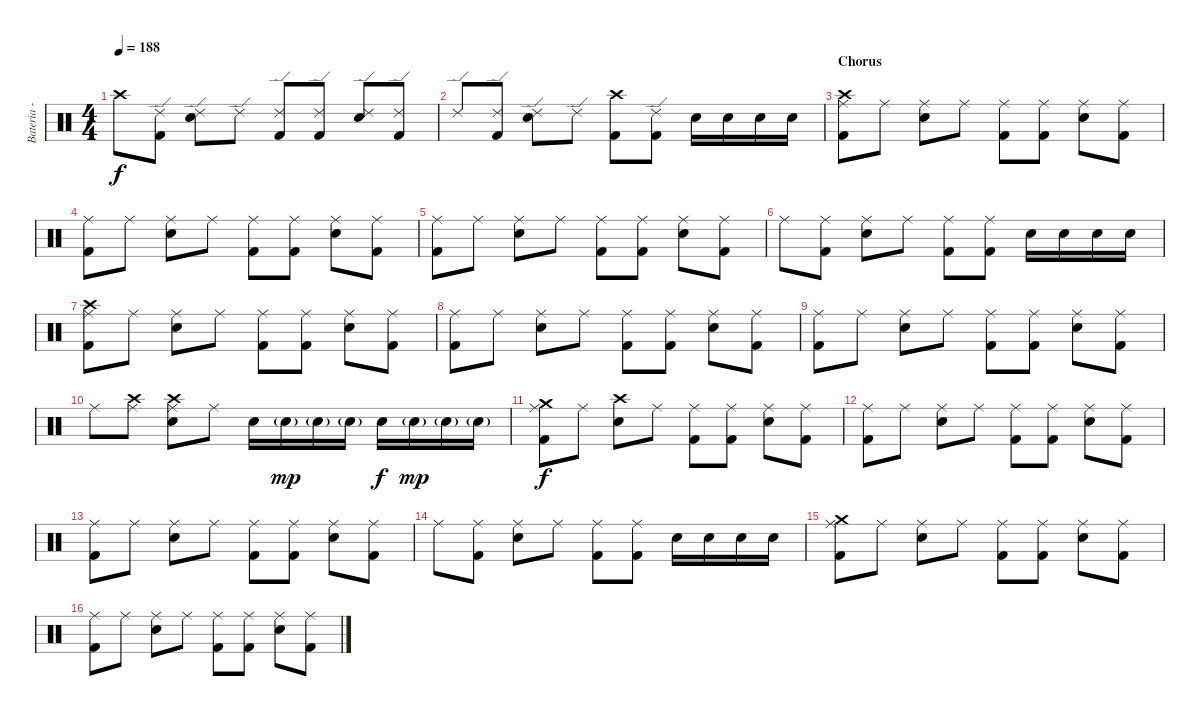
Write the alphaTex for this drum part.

\track ("Bateria - Larzon" "Bateria - ") {instrument percussion}
\staff {score}
\articulation defaults
\ts (4 4)
\tempo 188
\clef neutral
\ks c "Crash high (hit)".8{dy f}
("Kick (hit) 2" "Ride (edge) 2").8 ("Snare (hit) 2" "Ride (edge) 2").8 "Ride (edge) 2".8 ("Kick (hit) 2" "Ride (edge) 2").8 ("Kick (hit) 2" "Ride (edge) 2").8 ("Snare (hit) 2" "Ride (edge) 2").8 ("Kick (hit) 2" "Ride (edge) 2").8 |
"Ride (edge) 2".8 ("Kick (hit) 2" "Ride (edge) 2").8 ("Snare (hit) 2" "Ride (edge) 2").8 "Ride (edge) 2".8 ("Kick (hit) 2" "Crash high (hit)").8 ("Kick (hit) 2" "Ride (edge) 2").8 "Snare (hit) 2".16 "Snare (hit) 2".16 "Snare (hit) 2".16 "Snare (hit) 2".16 |
\section ("" "Chorus")
("Kick (hit) 2" "Crash high (hit)" "Ride (middle)").8 "Ride (middle)".8 ("Snare (hit) 2" "Ride (middle)").8 "Ride (middle)".8 ("Kick (hit) 2" "Ride (middle)").8 ("Kick (hit) 2" "Ride (middle)").8 ("Snare (hit) 2" "Ride (middle)").8 ("Kick (hit) 2" "Ride (middle)").8 |
("Kick (hit) 2" "Ride (middle)").8 "Ride (middle)".8 ("Snare (hit) 2" "Ride (middle)").8 "Ride (middle)".8 ("Kick (hit) 2" "Ride (middle)").8 ("Kick (hit) 2" "Ride (middle)").8 ("Snare (hit) 2" "Ride (middle)").8 ("Kick (hit) 2" "Ride (middle)").8 |
("Kick (hit) 2" "Ride (middle)").8 "Ride (middle)".8 ("Snare (hit) 2" "Ride (middle)").8 "Ride (middle)".8 ("Kick (hit) 2" "Ride (middle)").8 ("Kick (hit) 2" "Ride (middle)").8 ("Snare (hit) 2" "Ride (middle)").8 ("Kick (hit) 2" "Ride (middle)").8 |
"Ride (middle)".8 ("Kick (hit) 2" "Ride (middle)").8 ("Snare (hit) 2" "Ride (middle)").8 "Ride (middle)".8 ("Kick (hit) 2" "Ride (middle)").8 ("Kick (hit) 2" "Ride (middle)").8 "Snare (hit) 2".16 "Snare (hit) 2".16 "Snare (hit) 2".16 "Snare (hit) 2".16 |
("Kick (hit) 2" "Crash high (hit)" "Ride (middle)").8 "Ride (middle)".8 ("Snare (hit) 2" "Ride (middle)").8 "Ride (middle)".8 ("Kick (hit) 2" "Ride (middle)").8 ("Kick (hit) 2" "Ride (middle)").8 ("Snare (hit) 2" "Ride (middle)").8 ("Kick (hit) 2" "Ride (middle)").8 |
("Kick (hit) 2" "Ride (middle)").8 "Ride (middle)".8 ("Snare (hit) 2" "Ride (middle)").8 "Ride (middle)".8 ("Kick (hit) 2" "Ride (middle)").8 ("Kick (hit) 2" "Ride (middle)").8 ("Snare (hit) 2" "Ride (middle)").8 ("Kick (hit) 2" "Ride (middle)").8 |
("Kick (hit) 2" "Ride (middle)").8 "Ride (middle)".8 ("Snare (hit) 2" "Ride (middle)").8 "Ride (middle)".8 ("Kick (hit) 2" "Ride (middle)").8 ("Kick (hit) 2" "Ride (middle)").8 ("Snare (hit) 2" "Ride (middle)").8 ("Kick (hit) 2" "Ride (middle)").8 |
"Ride (middle)".8 ("Crash high (hit)" "Ride (middle)").8 ("Crash high (hit)" "Snare (hit) 2" "Ride (middle)").8 "Ride (middle)".8 "Snare (hit) 2".16 "Snare (hit) 2"{g}.16{dy mp} "Snare (hit) 2"{g}.16 "Snare (hit) 2"{g}.16 "Snare (hit) 2".16{dy f} "Snare (hit) 2"{g}.16{dy mp} "Snare (hit) 2"{g}.16 "Snare (hit) 2"{g}.16 |
("Kick (hit) 2" "Crash medium (hit)" "Ride (middle)").8{dy f} "Ride (middle)".8 ("Snare (hit) 2" "Crash high (hit)").8 "Ride (middle)".8 ("Kick (hit) 2" "Ride (middle)").8 ("Kick (hit) 2" "Ride (middle)").8 ("Snare (hit) 2" "Ride (middle)").8 ("Kick (hit) 2" "Ride (middle)").8 |
("Kick (hit) 2" "Ride (middle)").8 "Ride (middle)".8 ("Snare (hit) 2" "Ride (middle)").8 "Ride (middle)".8 ("Kick (hit) 2" "Ride (middle)").8 ("Kick (hit) 2" "Ride (middle)").8 ("Snare (hit) 2" "Ride (middle)").8 ("Kick (hit) 2" "Ride (middle)").8 |
("Kick (hit) 2" "Ride (middle)").8 "Ride (middle)".8 ("Snare (hit) 2" "Ride (middle)").8 "Ride (middle)".8 ("Kick (hit) 2" "Ride (middle)").8 ("Kick (hit) 2" "Ride (middle)").8 ("Snare (hit) 2" "Ride (middle)").8 ("Kick (hit) 2" "Ride (middle)").8 |
"Ride (middle)".8 ("Kick (hit) 2" "Ride (middle)").8 ("Snare (hit) 2" "Ride (middle)").8 "Ride (middle)".8 ("Kick (hit) 2" "Ride (middle)").8 ("Kick (hit) 2" "Ride (middle)").8 "Snare (hit) 2".16 "Snare (hit) 2".16 "Snare (hit) 2".16 "Snare (hit) 2".16 |
("Kick (hit) 2" "Crash medium (hit)" "Ride (middle)").8 "Ride (middle)".8 ("Snare (hit) 2" "Ride (middle)").8 "Ride (middle)".8 ("Kick (hit) 2" "Ride (middle)").8 ("Kick (hit) 2" "Ride (middle)").8 ("Snare (hit) 2" "Ride (middle)").8 ("Kick (hit) 2" "Ride (middle)").8 |
("Kick (hit) 2" "Ride (middle)").8 "Ride (middle)".8 ("Snare (hit) 2" "Ride (middle)").8 "Ride (middle)".8 ("Kick (hit) 2" "Ride (middle)").8 ("Kick (hit) 2" "Ride (middle)").8 ("Snare (hit) 2" "Ride (middle)").8 ("Kick (hit) 2" "Ride (middle)").8
